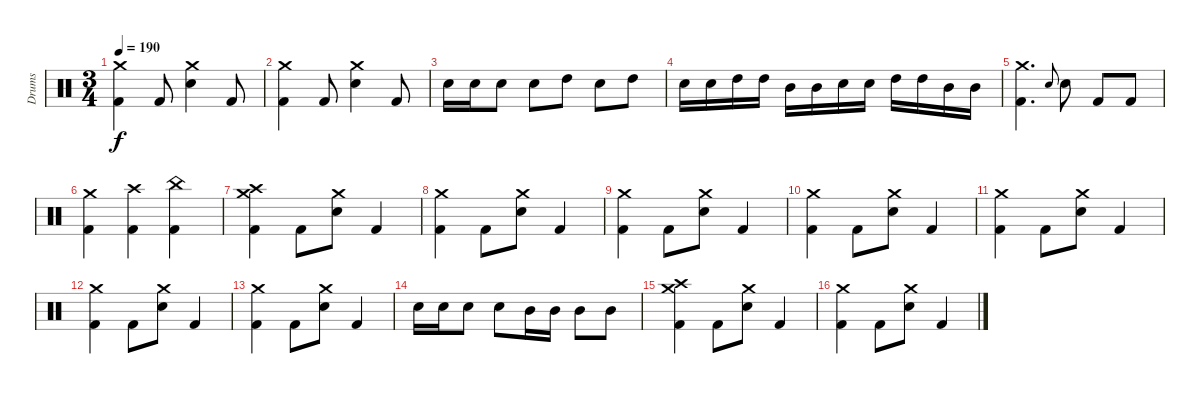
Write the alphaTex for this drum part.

\track ("Drums" "Drums") {instrument percussion}
\staff {score}
\articulation defaults
\ts (3 4)
\tempo 190
\clef neutral
\ks c
("Crash medium (hit)" "Kick (hit) 2").4{dy f} "Kick (hit) 2".8 ("Crash medium (hit)" "Electric Snare (hit)").4 "Kick (hit) 2".8 |
("Crash medium (hit)" "Kick (hit) 2").4 "Kick (hit) 2".8 ("Crash medium (hit)" "Electric Snare (hit)").4 "Kick (hit) 2".8 |
"Electric Snare (hit)".16 "Electric Snare (hit)".16 "Electric Snare (hit)".8 "Electric Snare (hit)".8 "High Tom (hit)".8 "Electric Snare (hit)".8 "High Tom (hit)".8 |
"Electric Snare (hit)".16 "Electric Snare (hit)".16 "High Tom (hit)".16 "High Tom (hit)".16 "Mid Tom (hit)".16 "Mid Tom (hit)".16 "Electric Snare (hit)".16 "Electric Snare (hit)".16 "High Tom (hit)".16 "High Tom (hit)".16 "Mid Tom (hit)".16 "Mid Tom (hit)".16 |
("Crash medium (hit)" "Kick (hit) 2").4{d} "Electric Snare (hit)".8{gr onbeat} "Electric Snare (hit)".8 "Kick (hit) 2".8 "Kick (hit) 2".8 |
("Crash medium (hit)" "Kick (hit) 2").4 ("Crash high (hit)" "Kick (hit) 2").4 ("China (hit)" "Kick (hit) 2").4 |
("Crash medium (hit)" "Crash high (hit)" "Kick (hit) 2").4 "Kick (hit) 2".8 ("Crash medium (hit)" "Electric Snare (hit)").8 "Kick (hit) 2".4 |
("Crash medium (hit)" "Kick (hit) 2").4 "Kick (hit) 2".8 ("Crash medium (hit)" "Electric Snare (hit)").8 "Kick (hit) 2".4 |
("Crash medium (hit)" "Kick (hit) 2").4 "Kick (hit) 2".8 ("Crash medium (hit)" "Electric Snare (hit)").8 "Kick (hit) 2".4 |
("Crash medium (hit)" "Kick (hit) 2").4 "Kick (hit) 2".8 ("Crash medium (hit)" "Electric Snare (hit)").8 "Kick (hit) 2".4 |
("Crash medium (hit)" "Kick (hit) 2").4 "Kick (hit) 2".8 ("Crash medium (hit)" "Electric Snare (hit)").8 "Kick (hit) 2".4 |
("Crash medium (hit)" "Kick (hit) 2").4 "Kick (hit) 2".8 ("Crash medium (hit)" "Electric Snare (hit)").8 "Kick (hit) 2".4 |
("Crash medium (hit)" "Kick (hit) 2").4 "Kick (hit) 2".8 ("Crash medium (hit)" "Electric Snare (hit)").8 "Kick (hit) 2".4 |
"Electric Snare (hit)".16 "Electric Snare (hit)".16 "Electric Snare (hit)".8 "Electric Snare (hit)".8 "Mid Tom (hit)".16 "Mid Tom (hit)".16 "Mid Tom (hit)".8 "Mid Tom (hit)".8 |
("Crash medium (hit)" "Crash high (hit)" "Kick (hit) 2").4 "Kick (hit) 2".8 ("Crash medium (hit)" "Electric Snare (hit)").8 "Kick (hit) 2".4 |
("Crash medium (hit)" "Kick (hit) 2").4 "Kick (hit) 2".8 ("Crash medium (hit)" "Electric Snare (hit)").8 "Kick (hit) 2".4
